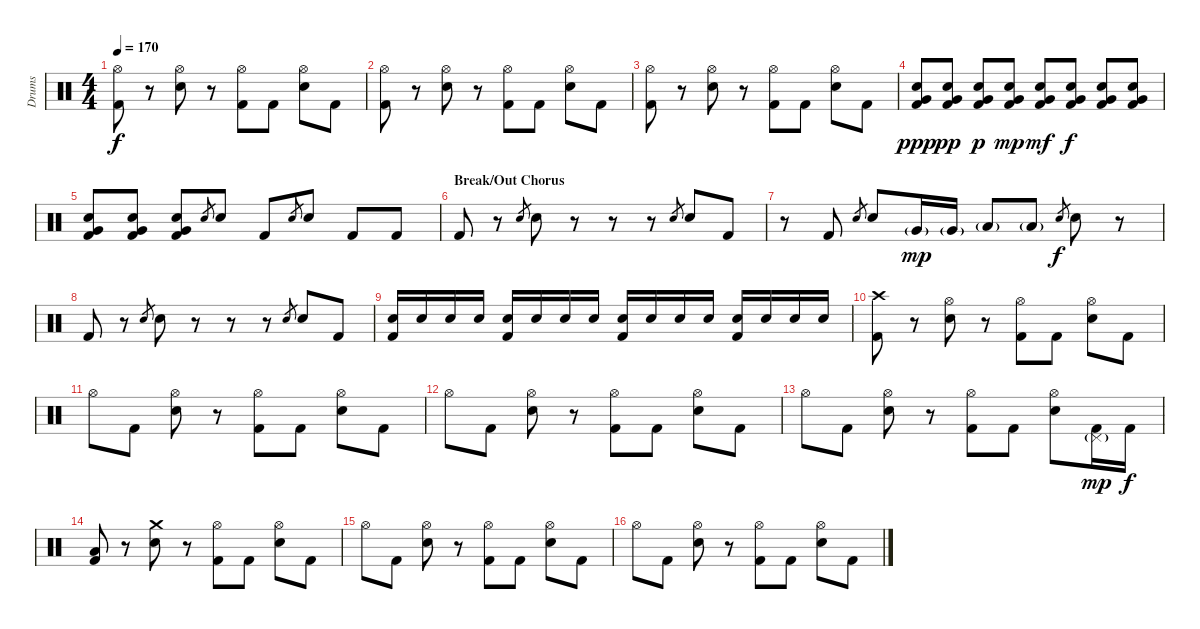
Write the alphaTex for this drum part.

\track ("Drums" "Drums") {instrument percussion}
\staff {score}
\articulation defaults
\ts (4 4)
\tempo 170
\clef neutral
\ks c
("Hi-Hat (open)" "Kick (hit) 2").8{dy f} r.8 ("Hi-Hat (open)" "Electric Snare (hit)").8 r.8 ("Hi-Hat (open)" "Kick (hit) 2").8 "Kick (hit) 2".8 ("Hi-Hat (open)" "Electric Snare (hit)").8 "Kick (hit) 2".8 |
("Hi-Hat (open)" "Kick (hit) 2").8 r.8 ("Hi-Hat (open)" "Electric Snare (hit)").8 r.8 ("Hi-Hat (open)" "Kick (hit) 2").8 "Kick (hit) 2".8 ("Hi-Hat (open)" "Electric Snare (hit)").8 "Kick (hit) 2".8 |
("Hi-Hat (open)" "Kick (hit) 2").8 r.8 ("Hi-Hat (open)" "Electric Snare (hit)").8 r.8 ("Hi-Hat (open)" "Kick (hit) 2").8 "Kick (hit) 2".8 ("Hi-Hat (open)" "Electric Snare (hit)").8 "Kick (hit) 2".8 |
("Very Low Tom (hit)" "Electric Snare (hit)" "Kick (hit) 2").8{dy ppp} ("Very Low Tom (hit)" "Electric Snare (hit)" "Kick (hit) 2").8{dy pp} ("Very Low Tom (hit)" "Electric Snare (hit)" "Kick (hit) 2").8{dy p} ("Very Low Tom (hit)" "Electric Snare (hit)" "Kick (hit) 2").8{dy mp} ("Very Low Tom (hit)" "Electric Snare (hit)" "Kick (hit) 2").8{dy mf} ("Very Low Tom (hit)" "Electric Snare (hit)" "Kick (hit) 2").8{dy f} ("Very Low Tom (hit)" "Electric Snare (hit)" "Kick (hit) 2").8 ("Very Low Tom (hit)" "Electric Snare (hit)" "Kick (hit) 2").8 |
("Very Low Tom (hit)" "Electric Snare (hit)" "Kick (hit) 2").8 ("Very Low Tom (hit)" "Electric Snare (hit)" "Kick (hit) 2").8 ("Very Low Tom (hit)" "Electric Snare (hit)" "Kick (hit) 2").8 "Electric Snare (hit)".8{gr} "Electric Snare (hit)".8 "Kick (hit) 2".8 "Electric Snare (hit)".8{gr} "Electric Snare (hit)".8 "Kick (hit) 2".8 "Kick (hit) 2".8 |
\section ("" "Break/Out Chorus")
"Kick (hit) 2".8 r.8 "Electric Snare (hit)".8{gr} "Electric Snare (hit)".8 r.8 r.8 r.8 "Electric Snare (hit)".8{gr} "Electric Snare (hit)".8 "Kick (hit) 2".8 |
r.8 "Kick (hit) 2".8 "Electric Snare (hit)".8{gr} "Electric Snare (hit)".8 "Very Low Tom (hit)"{g}.16{dy mp} "Very Low Tom (hit)"{g}.16 "Low Floor Tom (hit)"{g}.8 "Low Floor Tom (hit)"{g}.8 "Electric Snare (hit)".8{gr dy f} "Electric Snare (hit)".8 r.8 |
"Kick (hit) 2".8 r.8 "Electric Snare (hit)".8{gr} "Electric Snare (hit)".8 r.8 r.8 r.8 "Electric Snare (hit)".8{gr} "Electric Snare (hit)".8 "Kick (hit) 2".8 |
("Electric Snare (hit)" "Kick (hit) 2").16 "Electric Snare (hit)".16 "Electric Snare (hit)".16 "Electric Snare (hit)".16 ("Electric Snare (hit)" "Kick (hit) 2").16 "Electric Snare (hit)".16 "Electric Snare (hit)".16 "Electric Snare (hit)".16 ("Electric Snare (hit)" "Kick (hit) 2").16 "Electric Snare (hit)".16 "Electric Snare (hit)".16 "Electric Snare (hit)".16 ("Electric Snare (hit)" "Kick (hit) 2").16 "Electric Snare (hit)".16 "Electric Snare (hit)".16 "Electric Snare (hit)".16 |
("Crash high (hit)" "Kick (hit) 2").8 r.8 ("Hi-Hat (open)" "Electric Snare (hit)").8 r.8 ("Hi-Hat (open)" "Kick (hit) 2").8 "Kick (hit) 2".8 ("Hi-Hat (open)" "Electric Snare (hit)").8 "Kick (hit) 2".8 |
"Hi-Hat (open)".8 "Kick (hit) 2".8 ("Hi-Hat (open)" "Electric Snare (hit)").8 r.8 ("Hi-Hat (open)" "Kick (hit) 2").8 "Kick (hit) 2".8 ("Hi-Hat (open)" "Electric Snare (hit)").8 "Kick (hit) 2".8 |
"Hi-Hat (open)".8 "Kick (hit) 2".8 ("Hi-Hat (open)" "Electric Snare (hit)").8 r.8 ("Hi-Hat (open)" "Kick (hit) 2").8 "Kick (hit) 2".8 ("Hi-Hat (open)" "Electric Snare (hit)").8 "Kick (hit) 2".8 |
"Hi-Hat (open)".8 "Kick (hit) 2".8 ("Hi-Hat (open)" "Electric Snare (hit)").8 r.8 ("Hi-Hat (open)" "Kick (hit) 2").8 "Kick (hit) 2".8 ("Hi-Hat (open)" "Electric Snare (hit)").8 ("Pedal Hi-Hat (hit)"{g} "Kick (hit) 2").16{dy mp} "Kick (hit) 2".16{dy f} |
("Low Floor Tom (hit)" "Kick (hit) 2").8 r.8 ("Crash medium (hit)" "Electric Snare (hit)").8 r.8 ("Hi-Hat (open)" "Kick (hit) 2").8 "Kick (hit) 2".8 ("Hi-Hat (open)" "Electric Snare (hit)").8 "Kick (hit) 2".8 |
"Hi-Hat (open)".8 "Kick (hit) 2".8 ("Hi-Hat (open)" "Electric Snare (hit)").8 r.8 ("Hi-Hat (open)" "Kick (hit) 2").8 "Kick (hit) 2".8 ("Hi-Hat (open)" "Electric Snare (hit)").8 "Kick (hit) 2".8 |
"Hi-Hat (open)".8 "Kick (hit) 2".8 ("Hi-Hat (open)" "Electric Snare (hit)").8 r.8 ("Hi-Hat (open)" "Kick (hit) 2").8 "Kick (hit) 2".8 ("Hi-Hat (open)" "Electric Snare (hit)").8 "Kick (hit) 2".8
